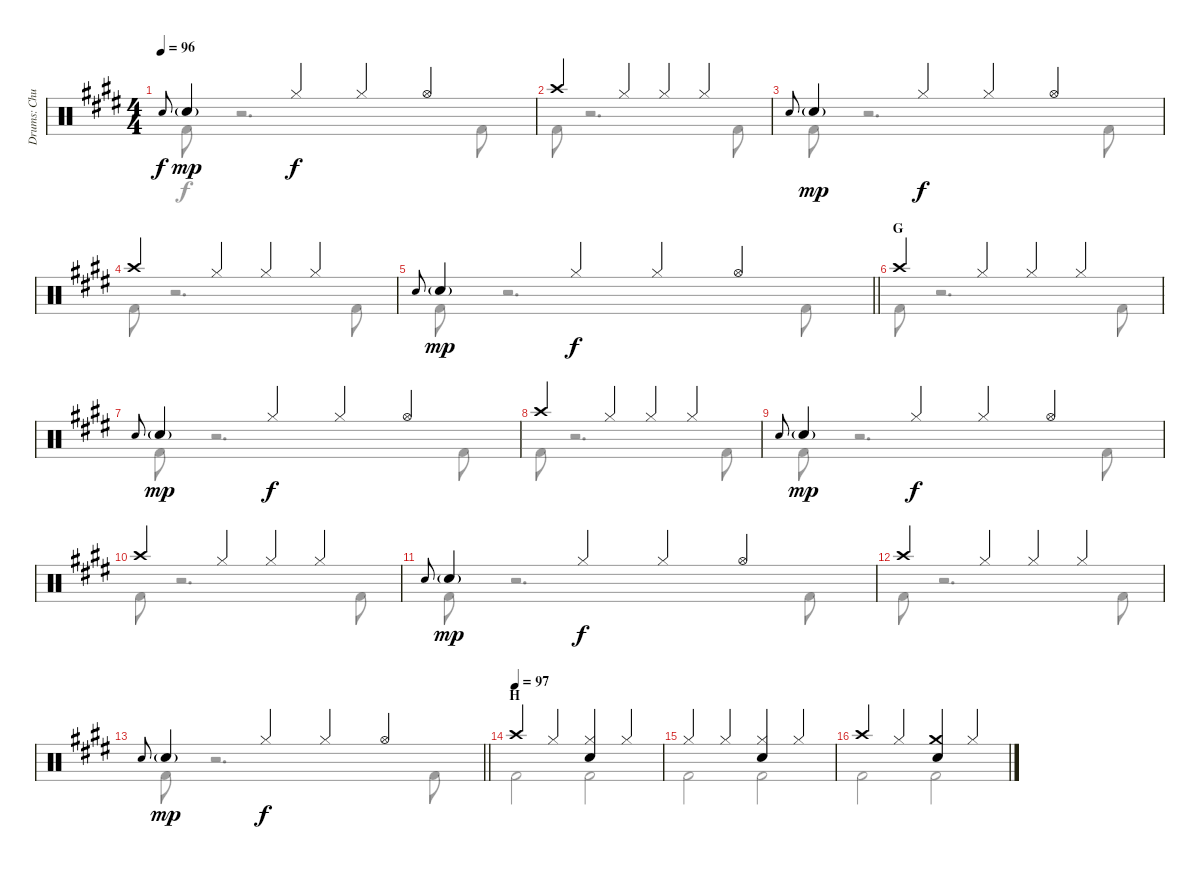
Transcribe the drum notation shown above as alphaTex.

\track ("Drums: Chuck" "Drums: Chu") {instrument percussion}
\staff {score}
\articulation defaults
\voice
\ts (4 4)
\tempo 96
\clef neutral
\ks e "Electric Snare (hit)".8{gr onbeat dy f} "Snare (hit) 2"{g}.4{dy mp} "Hi-Hat (closed)".4{dy f} "Hi-Hat (closed)".4 "Hi-Hat (open)".4
|
"Crash high (hit)".4 "Hi-Hat (closed)".4 "Hi-Hat (closed)".4 "Hi-Hat (closed)".4 |
"Electric Snare (hit)".8{gr onbeat} "Snare (hit) 2"{g}.4{dy mp} "Hi-Hat (closed)".4{dy f} "Hi-Hat (closed)".4 "Hi-Hat (open)".4 |
"Crash high (hit)".4 "Hi-Hat (closed)".4 "Hi-Hat (closed)".4 "Hi-Hat (closed)".4 |
\barLineRight lightlight "Electric Snare (hit)".8{gr onbeat} "Snare (hit) 2"{g}.4{dy mp} "Hi-Hat (closed)".4{dy f} "Hi-Hat (closed)".4 "Hi-Hat (open)".4
|
\section ("" "G")
"Crash high (hit)".4 "Hi-Hat (closed)".4 "Hi-Hat (closed)".4 "Hi-Hat (closed)".4 |
"Electric Snare (hit)".8{gr onbeat} "Snare (hit) 2"{g}.4{dy mp} "Hi-Hat (closed)".4{dy f} "Hi-Hat (closed)".4 "Hi-Hat (open)".4 |
"Crash high (hit)".4 "Hi-Hat (closed)".4 "Hi-Hat (closed)".4 "Hi-Hat (closed)".4 |
"Electric Snare (hit)".8{gr onbeat} "Snare (hit) 2"{g}.4{dy mp} "Hi-Hat (closed)".4{dy f} "Hi-Hat (closed)".4 "Hi-Hat (open)".4 |
"Crash high (hit)".4 "Hi-Hat (closed)".4 "Hi-Hat (closed)".4 "Hi-Hat (closed)".4 |
"Electric Snare (hit)".8{gr onbeat} "Snare (hit) 2"{g}.4{dy mp} "Hi-Hat (closed)".4{dy f} "Hi-Hat (closed)".4 "Hi-Hat (open)".4 |
"Crash high (hit)".4 "Hi-Hat (closed)".4 "Hi-Hat (closed)".4 "Hi-Hat (closed)".4 |
\barLineRight lightlight "Electric Snare (hit)".8{gr onbeat} "Snare (hit) 2"{g}.4{dy mp} "Hi-Hat (closed)".4{dy f} "Hi-Hat (closed)".4 "Hi-Hat (open)".4
|
\section ("" "H")
\tempo (97)
"Crash high (hit)".4 "Hi-Hat (closed)".4 ("Hi-Hat (closed)" "Snare (hit) 2").4 "Hi-Hat (closed)".4 |
"Hi-Hat (closed)".4 "Hi-Hat (closed)".4 ("Hi-Hat (closed)" "Snare (hit) 2").4 "Hi-Hat (closed)".4 |
"Crash high (hit)".4 "Hi-Hat (closed)".4 ("Crash medium (hit)" "Snare (hit) 2").4 "Hi-Hat (closed)".4
\voice
\clef neutral
\ottava regular
\simile none
\ks e "Kick (hit) 2".8{dy f}
r.2{d} "Kick (hit) 2".8 |
"Kick (hit) 2".8 r.2{d} "Kick (hit) 2".8 |
"Kick (hit) 2".8 r.2{d} "Kick (hit) 2".8 |
"Kick (hit) 2".8 r.2{d} "Kick (hit) 2".8 |
\barLineRight lightlight "Kick (hit) 2".8
r.2{d} "Kick (hit) 2".8 |
"Kick (hit) 2".8 r.2{d} "Kick (hit) 2".8 |
"Kick (hit) 2".8 r.2{d} "Kick (hit) 2".8 |
"Kick (hit) 2".8 r.2{d} "Kick (hit) 2".8 |
"Kick (hit) 2".8 r.2{d} "Kick (hit) 2".8 |
"Kick (hit) 2".8 r.2{d} "Kick (hit) 2".8 |
"Kick (hit) 2".8 r.2{d} "Kick (hit) 2".8 |
"Kick (hit) 2".8 r.2{d} "Kick (hit) 2".8 |
\barLineRight lightlight "Kick (hit) 2".8
r.2{d} "Kick (hit) 2".8 |
"Kick (hit) 2".2 "Kick (hit) 2".2 |
"Kick (hit) 2".2 "Kick (hit) 2".2 |
"Kick (hit) 2".2 "Kick (hit) 2".2
